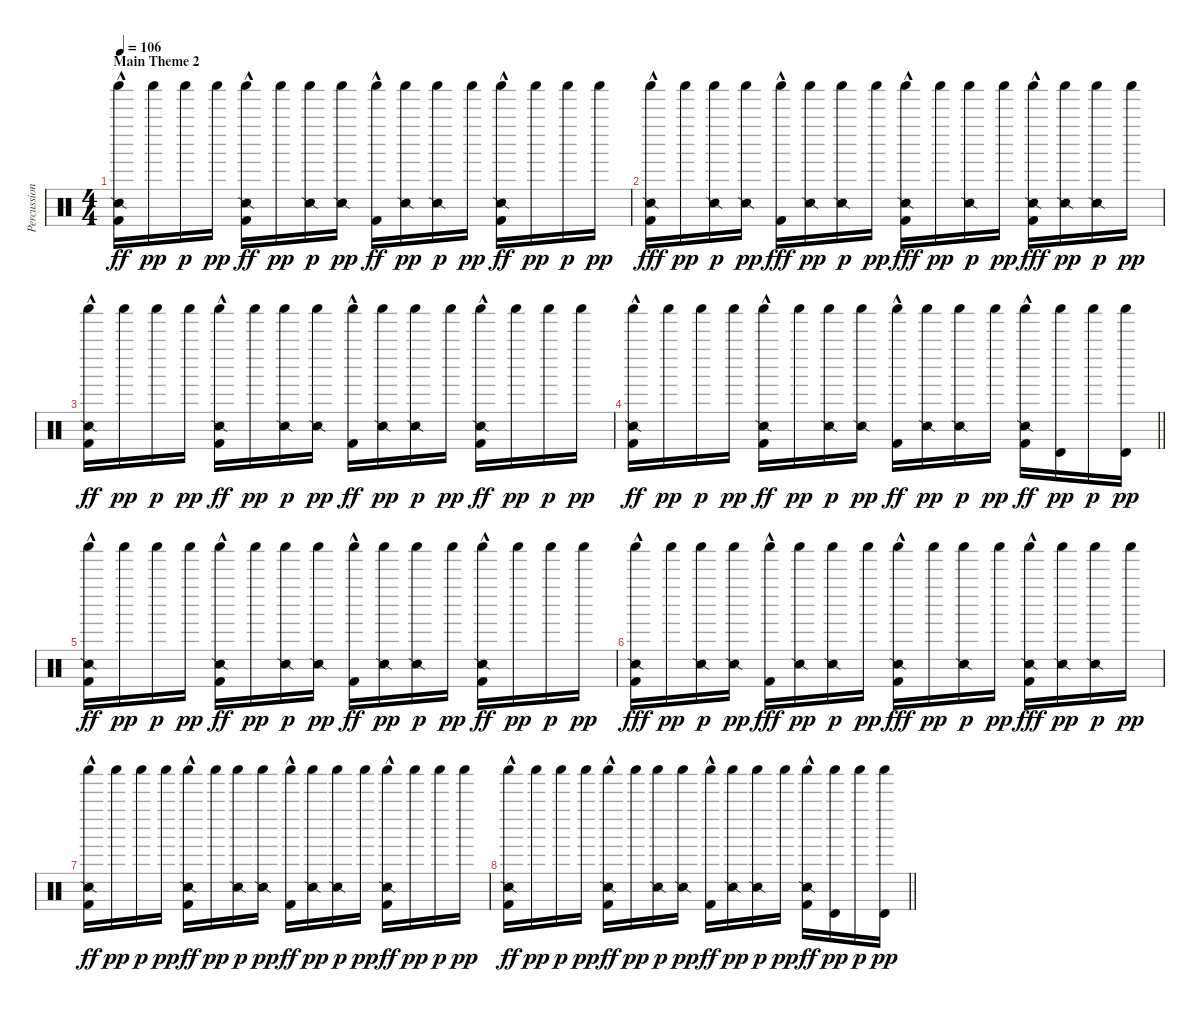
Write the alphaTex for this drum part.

\track ("Percussion" "Percussion") {instrument percussion}
\staff {score}
\articulation defaults
\ts (4 4)
\section ("" "Main Theme 2")
\tempo 106
\clef neutral
\ks c
("Snare (side stick) 2" "Shaker (hit)" "Kick (hit) 2"{hac}).16{dy ff} "Shaker (hit)".16{dy pp} "Shaker (hit)".16{dy p} "Shaker (hit)".16{dy pp} ("Snare (side stick) 2" "Shaker (hit)" "Kick (hit) 2"{hac}).16{dy ff} "Shaker (hit)".16{dy pp} ("Snare (side stick) 2" "Shaker (hit)").16{dy p} ("Snare (side stick) 2" "Shaker (hit)").16{dy pp} ("Shaker (hit)" "Kick (hit) 2"{hac}).16{dy ff} ("Snare (side stick) 2" "Shaker (hit)").16{dy pp} ("Snare (side stick) 2" "Shaker (hit)").16{dy p} "Shaker (hit)".16{dy pp} ("Snare (side stick) 2" "Shaker (hit)" "Kick (hit) 2"{hac}).16{dy ff} "Shaker (hit)".16{dy pp} "Shaker (hit)".16{dy p} "Shaker (hit)".16{dy pp} |
("Snare (side stick) 2" "Shaker (hit)" "Kick (hit) 2"{hac}).16{dy fff} "Shaker (hit)".16{dy pp} ("Snare (side stick) 2" "Shaker (hit)").16{dy p} ("Snare (side stick) 2" "Shaker (hit)").16{dy pp} ("Shaker (hit)" "Kick (hit) 2"{hac}).16{dy fff} ("Snare (side stick) 2" "Shaker (hit)").16{dy pp} ("Snare (side stick) 2" "Shaker (hit)").16{dy p} "Shaker (hit)".16{dy pp} ("Snare (side stick) 2" "Shaker (hit)" "Kick (hit) 2"{hac}).16{dy fff} "Shaker (hit)".16{dy pp} ("Snare (side stick) 2" "Shaker (hit)").16{dy p} "Shaker (hit)".16{dy pp} ("Snare (side stick) 2" "Shaker (hit)" "Kick (hit) 2"{hac}).16{dy fff} ("Snare (side stick) 2" "Shaker (hit)").16{dy pp} ("Snare (side stick) 2" "Shaker (hit)").16{dy p} "Shaker (hit)".16{dy pp} |
("Snare (side stick) 2" "Shaker (hit)" "Kick (hit) 2"{hac}).16{dy ff} "Shaker (hit)".16{dy pp} "Shaker (hit)".16{dy p} "Shaker (hit)".16{dy pp} ("Snare (side stick) 2" "Shaker (hit)" "Kick (hit) 2"{hac}).16{dy ff} "Shaker (hit)".16{dy pp} ("Snare (side stick) 2" "Shaker (hit)").16{dy p} ("Snare (side stick) 2" "Shaker (hit)").16{dy pp} ("Shaker (hit)" "Kick (hit) 2"{hac}).16{dy ff} ("Snare (side stick) 2" "Shaker (hit)").16{dy pp} ("Snare (side stick) 2" "Shaker (hit)").16{dy p} "Shaker (hit)".16{dy pp} ("Snare (side stick) 2" "Shaker (hit)" "Kick (hit) 2"{hac}).16{dy ff} "Shaker (hit)".16{dy pp} "Shaker (hit)".16{dy p} "Shaker (hit)".16{dy pp} |
\barLineRight lightlight
("Snare (side stick) 2" "Shaker (hit)" "Kick (hit) 2"{hac}).16{dy ff} "Shaker (hit)".16{dy pp} "Shaker (hit)".16{dy p} "Shaker (hit)".16{dy pp} ("Snare (side stick) 2" "Shaker (hit)" "Kick (hit) 2"{hac}).16{dy ff} "Shaker (hit)".16{dy pp} ("Snare (side stick) 2" "Shaker (hit)").16{dy p} ("Snare (side stick) 2" "Shaker (hit)").16{dy pp} ("Shaker (hit)" "Kick (hit) 2"{hac}).16{dy ff} ("Snare (side stick) 2" "Shaker (hit)").16{dy pp} ("Snare (side stick) 2" "Shaker (hit)").16{dy p} "Shaker (hit)".16{dy pp} ("Snare (side stick) 2" "Shaker (hit)" "Kick (hit) 2"{hac}).16{dy ff} ("Timbale high (hit)" "Shaker (hit)").16{dy pp} "Shaker (hit)".16{dy p} ("Timbale high (hit)" "Shaker (hit)").16{dy pp} |
("Snare (side stick) 2" "Shaker (hit)" "Kick (hit) 2"{hac}).16{dy ff} "Shaker (hit)".16{dy pp} "Shaker (hit)".16{dy p} "Shaker (hit)".16{dy pp} ("Snare (side stick) 2" "Shaker (hit)" "Kick (hit) 2"{hac}).16{dy ff} "Shaker (hit)".16{dy pp} ("Snare (side stick) 2" "Shaker (hit)").16{dy p} ("Snare (side stick) 2" "Shaker (hit)").16{dy pp} ("Shaker (hit)" "Kick (hit) 2"{hac}).16{dy ff} ("Snare (side stick) 2" "Shaker (hit)").16{dy pp} ("Snare (side stick) 2" "Shaker (hit)").16{dy p} "Shaker (hit)".16{dy pp} ("Snare (side stick) 2" "Shaker (hit)" "Kick (hit) 2"{hac}).16{dy ff} "Shaker (hit)".16{dy pp} "Shaker (hit)".16{dy p} "Shaker (hit)".16{dy pp} |
("Snare (side stick) 2" "Shaker (hit)" "Kick (hit) 2"{hac}).16{dy fff} "Shaker (hit)".16{dy pp} ("Snare (side stick) 2" "Shaker (hit)").16{dy p} ("Snare (side stick) 2" "Shaker (hit)").16{dy pp} ("Shaker (hit)" "Kick (hit) 2"{hac}).16{dy fff} ("Snare (side stick) 2" "Shaker (hit)").16{dy pp} ("Snare (side stick) 2" "Shaker (hit)").16{dy p} "Shaker (hit)".16{dy pp} ("Snare (side stick) 2" "Shaker (hit)" "Kick (hit) 2"{hac}).16{dy fff} "Shaker (hit)".16{dy pp} ("Snare (side stick) 2" "Shaker (hit)").16{dy p} "Shaker (hit)".16{dy pp} ("Snare (side stick) 2" "Shaker (hit)" "Kick (hit) 2"{hac}).16{dy fff} ("Snare (side stick) 2" "Shaker (hit)").16{dy pp} ("Snare (side stick) 2" "Shaker (hit)").16{dy p} "Shaker (hit)".16{dy pp} |
("Snare (side stick) 2" "Shaker (hit)" "Kick (hit) 2"{hac}).16{dy ff} "Shaker (hit)".16{dy pp} "Shaker (hit)".16{dy p} "Shaker (hit)".16{dy pp} ("Snare (side stick) 2" "Shaker (hit)" "Kick (hit) 2"{hac}).16{dy ff} "Shaker (hit)".16{dy pp} ("Snare (side stick) 2" "Shaker (hit)").16{dy p} ("Snare (side stick) 2" "Shaker (hit)").16{dy pp} ("Shaker (hit)" "Kick (hit) 2"{hac}).16{dy ff} ("Snare (side stick) 2" "Shaker (hit)").16{dy pp} ("Snare (side stick) 2" "Shaker (hit)").16{dy p} "Shaker (hit)".16{dy pp} ("Snare (side stick) 2" "Shaker (hit)" "Kick (hit) 2"{hac}).16{dy ff} "Shaker (hit)".16{dy pp} "Shaker (hit)".16{dy p} "Shaker (hit)".16{dy pp} |
\barLineRight lightlight
("Snare (side stick) 2" "Shaker (hit)" "Kick (hit) 2"{hac}).16{dy ff} "Shaker (hit)".16{dy pp} "Shaker (hit)".16{dy p} "Shaker (hit)".16{dy pp} ("Snare (side stick) 2" "Shaker (hit)" "Kick (hit) 2"{hac}).16{dy ff} "Shaker (hit)".16{dy pp} ("Snare (side stick) 2" "Shaker (hit)").16{dy p} ("Snare (side stick) 2" "Shaker (hit)").16{dy pp} ("Shaker (hit)" "Kick (hit) 2"{hac}).16{dy ff} ("Snare (side stick) 2" "Shaker (hit)").16{dy pp} ("Snare (side stick) 2" "Shaker (hit)").16{dy p} "Shaker (hit)".16{dy pp} ("Snare (side stick) 2" "Shaker (hit)" "Kick (hit) 2"{hac}).16{dy ff} ("Timbale high (hit)" "Shaker (hit)").16{dy pp} "Shaker (hit)".16{dy p} ("Timbale high (hit)" "Shaker (hit)").16{dy pp}
